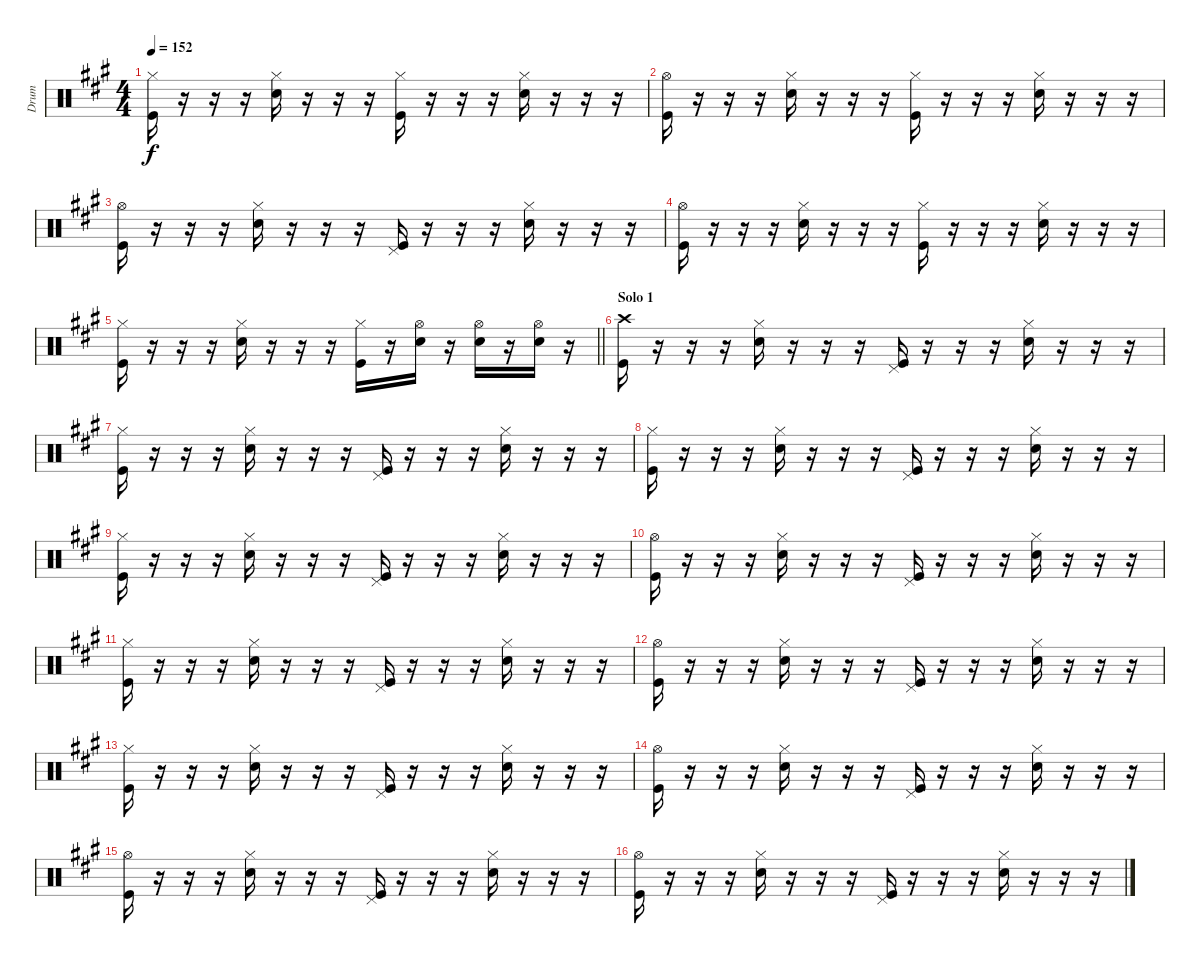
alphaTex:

\track ("Drum" "Drum") {instrument percussion}
\staff {score}
\articulation defaults
\ts (4 4)
\tempo 152
\clef neutral
\ks a
("Kick (hit)" "Hi-Hat (closed)").16{dy f} r.16 r.16 r.16 ("Snare (hit) 2" "Hi-Hat (closed)").16 r.16 r.16 r.16 ("Kick (hit)" "Hi-Hat (closed)").16 r.16 r.16 r.16 ("Snare (hit) 2" "Hi-Hat (closed)").16 r.16 r.16 r.16 |
("Kick (hit)" "Hi-Hat (open)").16 r.16 r.16 r.16 ("Snare (hit) 2" "Hi-Hat (closed)").16 r.16 r.16 r.16 ("Kick (hit)" "Hi-Hat (closed)").16 r.16 r.16 r.16 ("Snare (hit) 2" "Hi-Hat (closed)").16 r.16 r.16 r.16 |
("Kick (hit)" "Hi-Hat (open)").16 r.16 r.16 r.16 ("Snare (hit) 2" "Hi-Hat (closed)").16 r.16 r.16 r.16 ("Kick (hit)" "Pedal Hi-Hat (hit)").16 r.16 r.16 r.16 ("Snare (hit) 2" "Hi-Hat (closed)").16 r.16 r.16 r.16 |
("Kick (hit)" "Hi-Hat (open)").16 r.16 r.16 r.16 ("Snare (hit) 2" "Hi-Hat (closed)").16 r.16 r.16 r.16 ("Kick (hit)" "Hi-Hat (closed)").16 r.16 r.16 r.16 ("Snare (hit) 2" "Hi-Hat (closed)").16 r.16 r.16 r.16 |
\barLineRight lightlight
("Kick (hit)" "Hi-Hat (closed)").16 r.16 r.16 r.16 ("Snare (hit) 2" "Hi-Hat (closed)").16 r.16 r.16 r.16 ("Kick (hit)" "Hi-Hat (closed)").16 r.16 ("Snare (hit) 2" "Hi-Hat (open)").16 r.16 ("Snare (hit) 2" "Hi-Hat (open)").16 r.16 ("Snare (hit) 2" "Hi-Hat (open)").16 r.16 |
\section ("" "Solo 1")
("Kick (hit)" "Crash high (hit)").16 r.16 r.16 r.16 ("Snare (hit) 2" "Hi-Hat (closed)").16 r.16 r.16 r.16 ("Kick (hit)" "Pedal Hi-Hat (hit)").16 r.16 r.16 r.16 ("Snare (hit) 2" "Hi-Hat (closed)").16 r.16 r.16 r.16 |
("Kick (hit)" "Hi-Hat (closed)").16 r.16 r.16 r.16 ("Snare (hit) 2" "Hi-Hat (closed)").16 r.16 r.16 r.16 ("Kick (hit)" "Pedal Hi-Hat (hit)").16 r.16 r.16 r.16 ("Snare (hit) 2" "Hi-Hat (closed)").16 r.16 r.16 r.16 |
("Kick (hit)" "Hi-Hat (closed)").16 r.16 r.16 r.16 ("Snare (hit) 2" "Hi-Hat (closed)").16 r.16 r.16 r.16 ("Kick (hit)" "Pedal Hi-Hat (hit)").16 r.16 r.16 r.16 ("Snare (hit) 2" "Hi-Hat (closed)").16 r.16 r.16 r.16 |
("Kick (hit)" "Hi-Hat (closed)").16 r.16 r.16 r.16 ("Snare (hit) 2" "Hi-Hat (closed)").16 r.16 r.16 r.16 ("Kick (hit)" "Pedal Hi-Hat (hit)").16 r.16 r.16 r.16 ("Snare (hit) 2" "Hi-Hat (closed)").16 r.16 r.16 r.16 |
("Kick (hit)" "Hi-Hat (open)").16 r.16 r.16 r.16 ("Snare (hit) 2" "Hi-Hat (closed)").16 r.16 r.16 r.16 ("Kick (hit)" "Pedal Hi-Hat (hit)").16 r.16 r.16 r.16 ("Snare (hit) 2" "Hi-Hat (closed)").16 r.16 r.16 r.16 |
("Kick (hit)" "Hi-Hat (closed)").16 r.16 r.16 r.16 ("Snare (hit) 2" "Hi-Hat (closed)").16 r.16 r.16 r.16 ("Kick (hit)" "Pedal Hi-Hat (hit)").16 r.16 r.16 r.16 ("Snare (hit) 2" "Hi-Hat (closed)").16 r.16 r.16 r.16 |
("Kick (hit)" "Hi-Hat (open)").16 r.16 r.16 r.16 ("Snare (hit) 2" "Hi-Hat (closed)").16 r.16 r.16 r.16 ("Kick (hit)" "Pedal Hi-Hat (hit)").16 r.16 r.16 r.16 ("Snare (hit) 2" "Hi-Hat (closed)").16 r.16 r.16 r.16 |
("Kick (hit)" "Hi-Hat (closed)").16 r.16 r.16 r.16 ("Snare (hit) 2" "Hi-Hat (closed)").16 r.16 r.16 r.16 ("Kick (hit)" "Pedal Hi-Hat (hit)").16 r.16 r.16 r.16 ("Snare (hit) 2" "Hi-Hat (closed)").16 r.16 r.16 r.16 |
("Kick (hit)" "Hi-Hat (open)").16 r.16 r.16 r.16 ("Snare (hit) 2" "Hi-Hat (closed)").16 r.16 r.16 r.16 ("Kick (hit)" "Pedal Hi-Hat (hit)").16 r.16 r.16 r.16 ("Snare (hit) 2" "Hi-Hat (closed)").16 r.16 r.16 r.16 |
("Kick (hit)" "Hi-Hat (open)").16 r.16 r.16 r.16 ("Snare (hit) 2" "Hi-Hat (closed)").16 r.16 r.16 r.16 ("Kick (hit)" "Pedal Hi-Hat (hit)").16 r.16 r.16 r.16 ("Snare (hit) 2" "Hi-Hat (closed)").16 r.16 r.16 r.16 |
("Kick (hit)" "Hi-Hat (open)").16 r.16 r.16 r.16 ("Snare (hit) 2" "Hi-Hat (closed)").16 r.16 r.16 r.16 ("Kick (hit)" "Pedal Hi-Hat (hit)").16 r.16 r.16 r.16 ("Snare (hit) 2" "Hi-Hat (closed)").16 r.16 r.16 r.16
